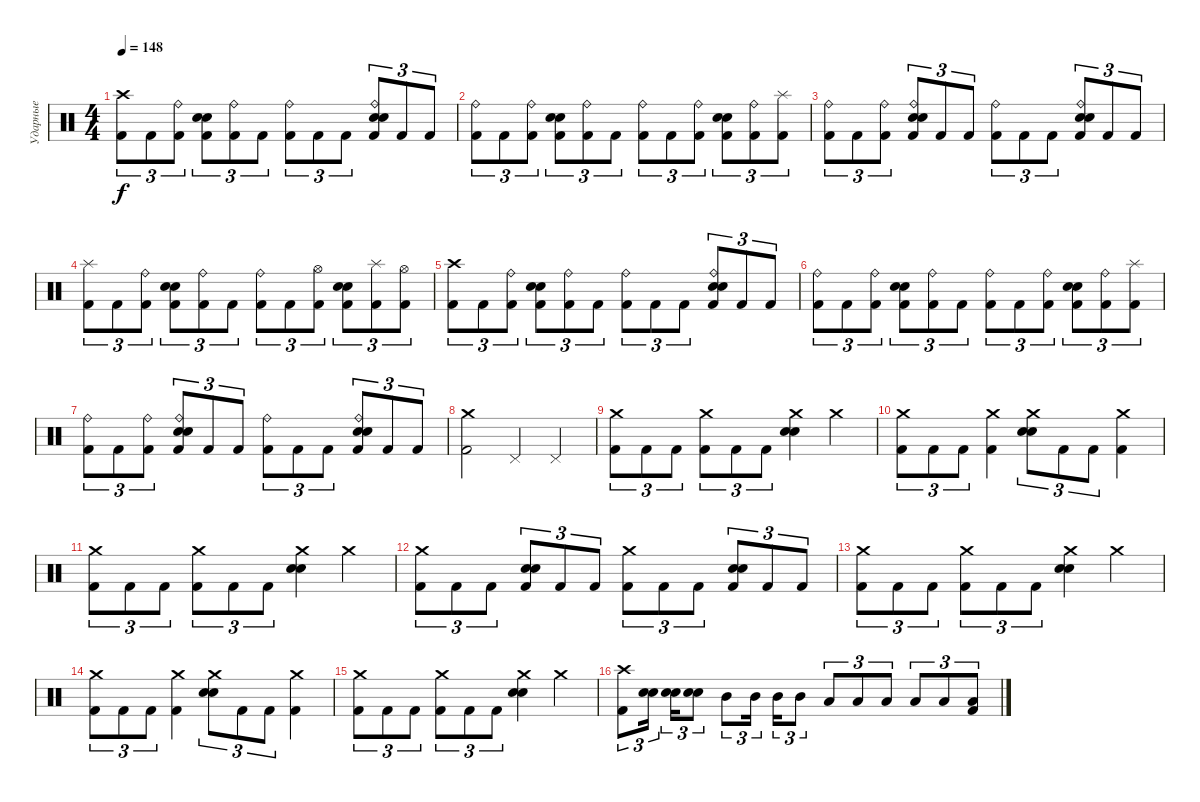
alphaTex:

\track ("Ударные" "Ударные") {instrument percussion}
\staff {score}
\articulation defaults
\ts (4 4)
\tempo 148
\clef neutral
\ks c
("Crash high (hit)" "Kick (hit) 2").8{tu (3 2) dy f} "Kick (hit) 2".8{tu (3 2)} ("Ride (bell)" "Kick (hit) 2").8{tu (3 2)} ("Snare (hit) 2" "Electric Snare (hit)" "Kick (hit) 2").8{tu (3 2)} ("Ride (bell)" "Kick (hit) 2").8{tu (3 2)} "Kick (hit) 2".8{tu (3 2)} ("Ride (bell)" "Kick (hit) 2").8{tu (3 2)} "Kick (hit) 2".8{tu (3 2)} "Kick (hit) 2".8{tu (3 2)} ("Ride (bell)" "Snare (hit) 2" "Electric Snare (hit)" "Kick (hit) 2").8{tu (3 2)} "Kick (hit) 2".8{tu (3 2)} "Kick (hit) 2".8{tu (3 2)} |
("Ride (bell)" "Kick (hit) 2").8{tu (3 2)} "Kick (hit) 2".8{tu (3 2)} ("Ride (bell)" "Kick (hit) 2").8{tu (3 2)} ("Snare (hit) 2" "Electric Snare (hit)" "Kick (hit) 2").8{tu (3 2)} ("Ride (bell)" "Kick (hit) 2").8{tu (3 2)} "Kick (hit) 2".8{tu (3 2)} ("Ride (bell)" "Kick (hit) 2").8{tu (3 2)} "Kick (hit) 2".8{tu (3 2)} ("Ride (bell)" "Kick (hit) 2").8{tu (3 2)} ("Snare (hit) 2" "Electric Snare (hit)" "Kick (hit) 2").8{tu (3 2)} ("Ride (bell)" "Kick (hit) 2").8{tu (3 2)} ("Splash (hit)" "Kick (hit) 2").8{tu (3 2)} |
("Ride (bell)" "Kick (hit) 2").8{tu (3 2)} "Kick (hit) 2".8{tu (3 2)} ("Ride (bell)" "Kick (hit) 2").8{tu (3 2)} ("Ride (bell)" "Snare (hit) 2" "Electric Snare (hit)" "Kick (hit) 2").8{tu (3 2)} "Kick (hit) 2".8{tu (3 2)} "Kick (hit) 2".8{tu (3 2)} ("Ride (bell)" "Kick (hit) 2").8{tu (3 2)} "Kick (hit) 2".8{tu (3 2)} "Kick (hit) 2".8{tu (3 2)} ("Ride (bell)" "Snare (hit) 2" "Electric Snare (hit)" "Kick (hit) 2").8{tu (3 2)} "Kick (hit) 2".8{tu (3 2)} "Kick (hit) 2".8{tu (3 2)} |
("Splash (hit)" "Kick (hit) 2").8{tu (3 2)} "Kick (hit) 2".8{tu (3 2)} ("Ride (bell)" "Kick (hit) 2").8{tu (3 2)} ("Snare (hit) 2" "Electric Snare (hit)" "Kick (hit) 2").8{tu (3 2)} ("Ride (bell)" "Kick (hit) 2").8{tu (3 2)} "Kick (hit) 2".8{tu (3 2)} ("Ride (bell)" "Kick (hit) 2").8{tu (3 2)} "Kick (hit) 2".8{tu (3 2)} ("Hi-Hat (open)" "Kick (hit) 2").8{tu (3 2)} ("Snare (hit) 2" "Electric Snare (hit)" "Kick (hit) 2").8{tu (3 2)} ("Splash (hit)" "Kick (hit) 2").8{tu (3 2)} ("Hi-Hat (open)" "Kick (hit) 2").8{tu (3 2)} |
("Crash high (hit)" "Kick (hit) 2").8{tu (3 2)} "Kick (hit) 2".8{tu (3 2)} ("Ride (bell)" "Kick (hit) 2").8{tu (3 2)} ("Snare (hit) 2" "Electric Snare (hit)" "Kick (hit) 2").8{tu (3 2)} ("Ride (bell)" "Kick (hit) 2").8{tu (3 2)} "Kick (hit) 2".8{tu (3 2)} ("Ride (bell)" "Kick (hit) 2").8{tu (3 2)} "Kick (hit) 2".8{tu (3 2)} "Kick (hit) 2".8{tu (3 2)} ("Ride (bell)" "Snare (hit) 2" "Electric Snare (hit)" "Kick (hit) 2").8{tu (3 2)} "Kick (hit) 2".8{tu (3 2)} "Kick (hit) 2".8{tu (3 2)} |
("Ride (bell)" "Kick (hit) 2").8{tu (3 2)} "Kick (hit) 2".8{tu (3 2)} ("Ride (bell)" "Kick (hit) 2").8{tu (3 2)} ("Snare (hit) 2" "Electric Snare (hit)" "Kick (hit) 2").8{tu (3 2)} ("Ride (bell)" "Kick (hit) 2").8{tu (3 2)} "Kick (hit) 2".8{tu (3 2)} ("Ride (bell)" "Kick (hit) 2").8{tu (3 2)} "Kick (hit) 2".8{tu (3 2)} ("Ride (bell)" "Kick (hit) 2").8{tu (3 2)} ("Snare (hit) 2" "Electric Snare (hit)" "Kick (hit) 2").8{tu (3 2)} ("Ride (bell)" "Kick (hit) 2").8{tu (3 2)} ("Splash (hit)" "Kick (hit) 2").8{tu (3 2)} |
("Ride (bell)" "Kick (hit) 2").8{tu (3 2)} "Kick (hit) 2".8{tu (3 2)} ("Ride (bell)" "Kick (hit) 2").8{tu (3 2)} ("Ride (bell)" "Snare (hit) 2" "Electric Snare (hit)" "Kick (hit) 2").8{tu (3 2)} "Kick (hit) 2".8{tu (3 2)} "Kick (hit) 2".8{tu (3 2)} ("Ride (bell)" "Kick (hit) 2").8{tu (3 2)} "Kick (hit) 2".8{tu (3 2)} "Kick (hit) 2".8{tu (3 2)} ("Ride (bell)" "Snare (hit) 2" "Electric Snare (hit)" "Kick (hit) 2").8{tu (3 2)} "Kick (hit) 2".8{tu (3 2)} "Kick (hit) 2".8{tu (3 2)} |
("Crash medium (hit)" "Kick (hit) 2").2 "Pedal Hi-Hat (hit)".4 "Pedal Hi-Hat (hit)".4 |
("Crash medium (hit)" "Kick (hit) 2").8{tu (3 2)} "Kick (hit) 2".8{tu (3 2)} "Kick (hit) 2".8{tu (3 2)} ("Crash medium (hit)" "Kick (hit) 2").8{tu (3 2)} "Kick (hit) 2".8{tu (3 2)} "Kick (hit) 2".8{tu (3 2)} ("Crash medium (hit)" "Electric Snare (hit)" "Snare (hit) 2").4 "Crash medium (hit)".4 |
("Crash medium (hit)" "Kick (hit) 2").8{tu (3 2)} "Kick (hit) 2".8{tu (3 2)} "Kick (hit) 2".8{tu (3 2)} ("Crash medium (hit)" "Kick (hit) 2").4 ("Crash medium (hit)" "Electric Snare (hit)" "Snare (hit) 2").8{tu (3 2)} "Kick (hit) 2".8{tu (3 2)} "Kick (hit) 2".8{tu (3 2)} ("Crash medium (hit)" "Kick (hit) 2").4 |
("Crash medium (hit)" "Kick (hit) 2").8{tu (3 2)} "Kick (hit) 2".8{tu (3 2)} "Kick (hit) 2".8{tu (3 2)} ("Crash medium (hit)" "Kick (hit) 2").8{tu (3 2)} "Kick (hit) 2".8{tu (3 2)} "Kick (hit) 2".8{tu (3 2)} ("Crash medium (hit)" "Electric Snare (hit)" "Snare (hit) 2").4 "Crash medium (hit)".4 |
("Crash medium (hit)" "Kick (hit) 2").8{tu (3 2)} "Kick (hit) 2".8{tu (3 2)} "Kick (hit) 2".8{tu (3 2)} ("Electric Snare (hit)" "Snare (hit) 2" "Kick (hit) 2").8{tu (3 2)} "Kick (hit) 2".8{tu (3 2)} "Kick (hit) 2".8{tu (3 2)} ("Crash medium (hit)" "Kick (hit) 2").8{tu (3 2)} "Kick (hit) 2".8{tu (3 2)} "Kick (hit) 2".8{tu (3 2)} ("Electric Snare (hit)" "Snare (hit) 2" "Kick (hit) 2").8{tu (3 2)} "Kick (hit) 2".8{tu (3 2)} "Kick (hit) 2".8{tu (3 2)} |
("Crash medium (hit)" "Kick (hit) 2").8{tu (3 2)} "Kick (hit) 2".8{tu (3 2)} "Kick (hit) 2".8{tu (3 2)} ("Crash medium (hit)" "Kick (hit) 2").8{tu (3 2)} "Kick (hit) 2".8{tu (3 2)} "Kick (hit) 2".8{tu (3 2)} ("Crash medium (hit)" "Electric Snare (hit)" "Snare (hit) 2").4 "Crash medium (hit)".4 |
("Crash medium (hit)" "Kick (hit) 2").8{tu (3 2)} "Kick (hit) 2".8{tu (3 2)} "Kick (hit) 2".8{tu (3 2)} ("Crash medium (hit)" "Kick (hit) 2").4 ("Crash medium (hit)" "Electric Snare (hit)" "Snare (hit) 2").8{tu (3 2)} "Kick (hit) 2".8{tu (3 2)} "Kick (hit) 2".8{tu (3 2)} ("Crash medium (hit)" "Kick (hit) 2").4 |
("Crash medium (hit)" "Kick (hit) 2").8{tu (3 2)} "Kick (hit) 2".8{tu (3 2)} "Kick (hit) 2".8{tu (3 2)} ("Crash medium (hit)" "Kick (hit) 2").8{tu (3 2)} "Kick (hit) 2".8{tu (3 2)} "Kick (hit) 2".8{tu (3 2)} ("Crash medium (hit)" "Electric Snare (hit)" "Snare (hit) 2").4 "Crash medium (hit)".4 |
("Crash high (hit)" "Kick (hit) 2").8{tu (3 2)} ("Electric Snare (hit)" "Snare (hit) 2").16{tu (3 2) beam splitsecondary} ("Electric Snare (hit)" "Snare (hit) 2").16{tu (3 2)} ("Electric Snare (hit)" "Snare (hit) 2").8{tu (3 2)} "Mid Tom (hit)".8{tu (3 2)} "Mid Tom (hit)".16{tu (3 2) beam splitsecondary} "Mid Tom (hit)".16{tu (3 2)} "Mid Tom (hit)".8{tu (3 2)} "Low Tom (hit)".8{tu (3 2)} "Low Tom (hit)".8{tu (3 2)} "Low Floor Tom (hit)".8{tu (3 2)} "Low Floor Tom (hit)".8{tu (3 2)} "Low Floor Tom (hit)".8{tu (3 2)} ("Low Floor Tom (hit)" "Kick (hit) 2").8{tu (3 2)}
